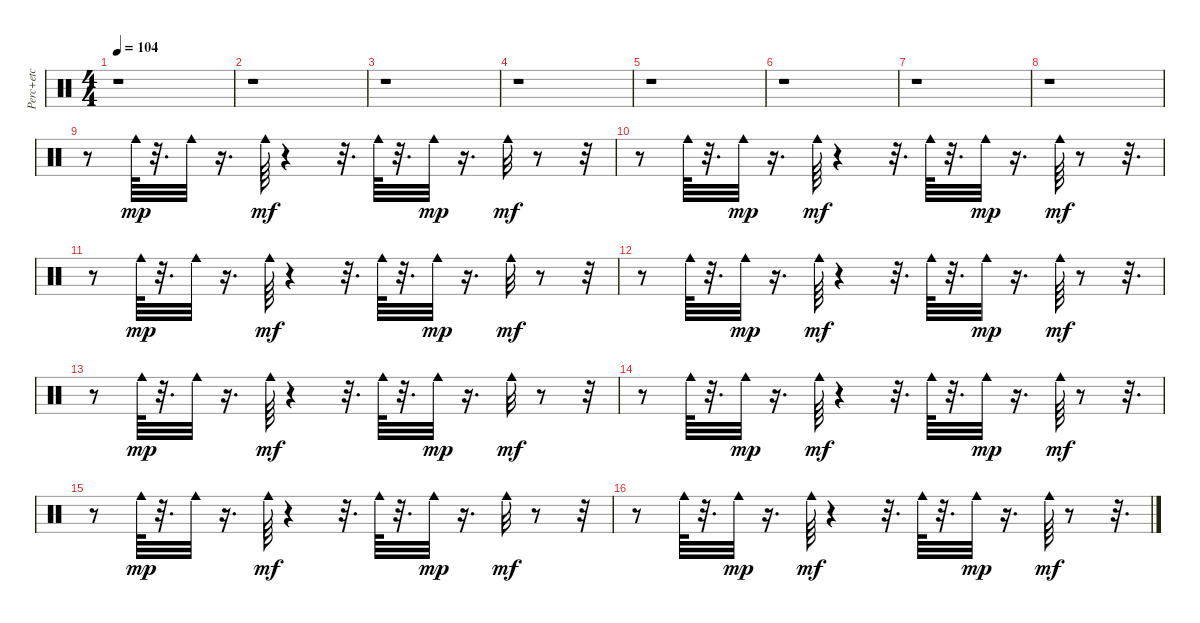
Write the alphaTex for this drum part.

\track ("Perc+etc" "Perc+etc") {instrument percussion}
\staff {score}
\articulation defaults
\ts (4 4)
\tempo 104
\clef neutral
\ks c
r.1{dy mf} |
r.1 |
r.1 |
r.1 |
r.1 |
r.1 |
r.1 |
r.1 |
r.8 "Cowbell medium (hit)".64{dy mp} r.32{d} "Cowbell medium (hit)".32 r.16{d} "Cowbell medium (hit)".64{dy mf} r.4 r.32{d} "Cowbell medium (hit)".64 r.32{d} "Cowbell medium (hit)".32{dy mp} r.16{d} "Cowbell medium (hit)".32{dy mf} r.8 r.32 |
r.8 "Cowbell medium (hit)".64 r.32{d} "Cowbell medium (hit)".32{dy mp} r.16{d} "Cowbell medium (hit)".64{dy mf} r.4 r.32{d} "Cowbell medium (hit)".64 r.32{d} "Cowbell medium (hit)".32{dy mp} r.16{d} "Cowbell medium (hit)".64{dy mf} r.8 r.32{d} |
r.8 "Cowbell medium (hit)".64{dy mp} r.32{d} "Cowbell medium (hit)".32 r.16{d} "Cowbell medium (hit)".64{dy mf} r.4 r.32{d} "Cowbell medium (hit)".64 r.32{d} "Cowbell medium (hit)".32{dy mp} r.16{d} "Cowbell medium (hit)".32{dy mf} r.8 r.32 |
r.8 "Cowbell medium (hit)".64 r.32{d} "Cowbell medium (hit)".32{dy mp} r.16{d} "Cowbell medium (hit)".64{dy mf} r.4 r.32{d} "Cowbell medium (hit)".64 r.32{d} "Cowbell medium (hit)".32{dy mp} r.16{d} "Cowbell medium (hit)".64{dy mf} r.8 r.32{d} |
r.8 "Cowbell medium (hit)".64{dy mp} r.32{d} "Cowbell medium (hit)".32 r.16{d} "Cowbell medium (hit)".64{dy mf} r.4 r.32{d} "Cowbell medium (hit)".64 r.32{d} "Cowbell medium (hit)".32{dy mp} r.16{d} "Cowbell medium (hit)".32{dy mf} r.8 r.32 |
r.8 "Cowbell medium (hit)".64 r.32{d} "Cowbell medium (hit)".32{dy mp} r.16{d} "Cowbell medium (hit)".64{dy mf} r.4 r.32{d} "Cowbell medium (hit)".64 r.32{d} "Cowbell medium (hit)".32{dy mp} r.16{d} "Cowbell medium (hit)".64{dy mf} r.8 r.32{d} |
r.8 "Cowbell medium (hit)".64{dy mp} r.32{d} "Cowbell medium (hit)".32 r.16{d} "Cowbell medium (hit)".64{dy mf} r.4 r.32{d} "Cowbell medium (hit)".64 r.32{d} "Cowbell medium (hit)".32{dy mp} r.16{d} "Cowbell medium (hit)".32{dy mf} r.8 r.32 |
r.8 "Cowbell medium (hit)".64 r.32{d} "Cowbell medium (hit)".32{dy mp} r.16{d} "Cowbell medium (hit)".64{dy mf} r.4 r.32{d} "Cowbell medium (hit)".64 r.32{d} "Cowbell medium (hit)".32{dy mp} r.16{d} "Cowbell medium (hit)".64{dy mf} r.8 r.32{d}
